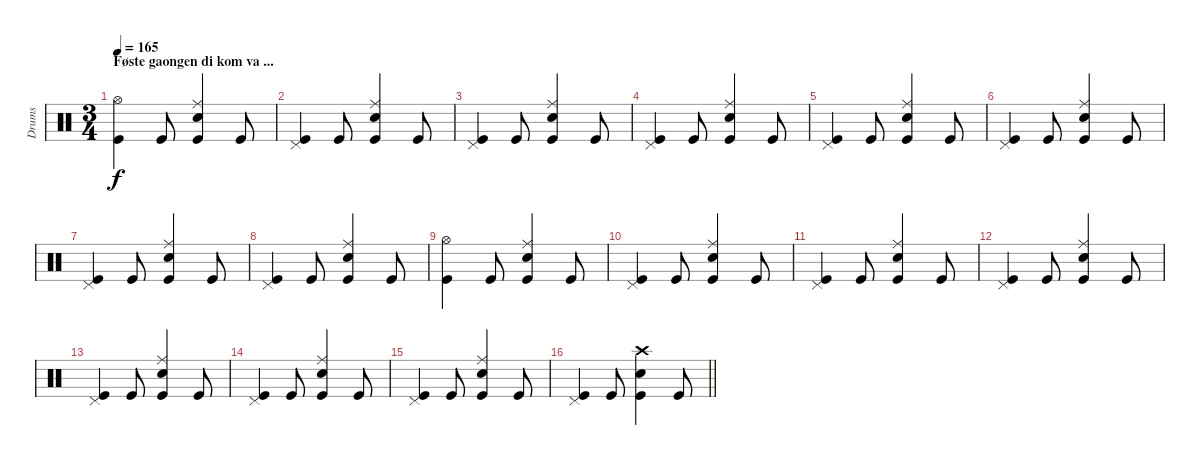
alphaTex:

\track ("Drums" "Drums") {instrument percussion}
\staff {score}
\articulation defaults
\ts (3 4)
\section ("" "Føste gaongen di kom va ...")
\tempo 165
\clef neutral
\ks c
("Hi-Hat (open)" "Kick (hit)").4{dy f} "Kick (hit)".8 ("Ride (middle)" "Snare (hit) 2" "Kick (hit)").4 "Kick (hit)".8 |
("Pedal Hi-Hat (hit)" "Kick (hit)").4 "Kick (hit)".8 ("Ride (middle)" "Snare (hit) 2" "Kick (hit)").4 "Kick (hit)".8 |
("Pedal Hi-Hat (hit)" "Kick (hit)").4 "Kick (hit)".8 ("Ride (middle)" "Snare (hit) 2" "Kick (hit)").4 "Kick (hit)".8 |
("Pedal Hi-Hat (hit)" "Kick (hit)").4 "Kick (hit)".8 ("Ride (middle)" "Snare (hit) 2" "Kick (hit)").4 "Kick (hit)".8 |
("Pedal Hi-Hat (hit)" "Kick (hit)").4 "Kick (hit)".8 ("Ride (middle)" "Snare (hit) 2" "Kick (hit)").4 "Kick (hit)".8 |
("Pedal Hi-Hat (hit)" "Kick (hit)").4 "Kick (hit)".8 ("Ride (middle)" "Snare (hit) 2" "Kick (hit)").4 "Kick (hit)".8 |
("Pedal Hi-Hat (hit)" "Kick (hit)").4 "Kick (hit)".8 ("Ride (middle)" "Snare (hit) 2" "Kick (hit)").4 "Kick (hit)".8 |
("Pedal Hi-Hat (hit)" "Kick (hit)").4 "Kick (hit)".8 ("Ride (middle)" "Snare (hit) 2" "Kick (hit)").4 "Kick (hit)".8 |
("Hi-Hat (open)" "Kick (hit)").4 "Kick (hit)".8 ("Ride (middle)" "Snare (hit) 2" "Kick (hit)").4 "Kick (hit)".8 |
("Pedal Hi-Hat (hit)" "Kick (hit)").4 "Kick (hit)".8 ("Ride (middle)" "Snare (hit) 2" "Kick (hit)").4 "Kick (hit)".8 |
("Pedal Hi-Hat (hit)" "Kick (hit)").4 "Kick (hit)".8 ("Ride (middle)" "Snare (hit) 2" "Kick (hit)").4 "Kick (hit)".8 |
("Pedal Hi-Hat (hit)" "Kick (hit)").4 "Kick (hit)".8 ("Ride (middle)" "Snare (hit) 2" "Kick (hit)").4 "Kick (hit)".8 |
("Pedal Hi-Hat (hit)" "Kick (hit)").4 "Kick (hit)".8 ("Ride (middle)" "Snare (hit) 2" "Kick (hit)").4 "Kick (hit)".8 |
("Pedal Hi-Hat (hit)" "Kick (hit)").4 "Kick (hit)".8 ("Ride (middle)" "Snare (hit) 2" "Kick (hit)").4 "Kick (hit)".8 |
("Pedal Hi-Hat (hit)" "Kick (hit)").4 "Kick (hit)".8 ("Ride (middle)" "Snare (hit) 2" "Kick (hit)").4 "Kick (hit)".8 |
\barLineRight lightlight
("Pedal Hi-Hat (hit)" "Kick (hit)").4 "Kick (hit)".8 ("Crash high (hit)" "Snare (hit) 2" "Kick (hit)").4 "Kick (hit)".8
